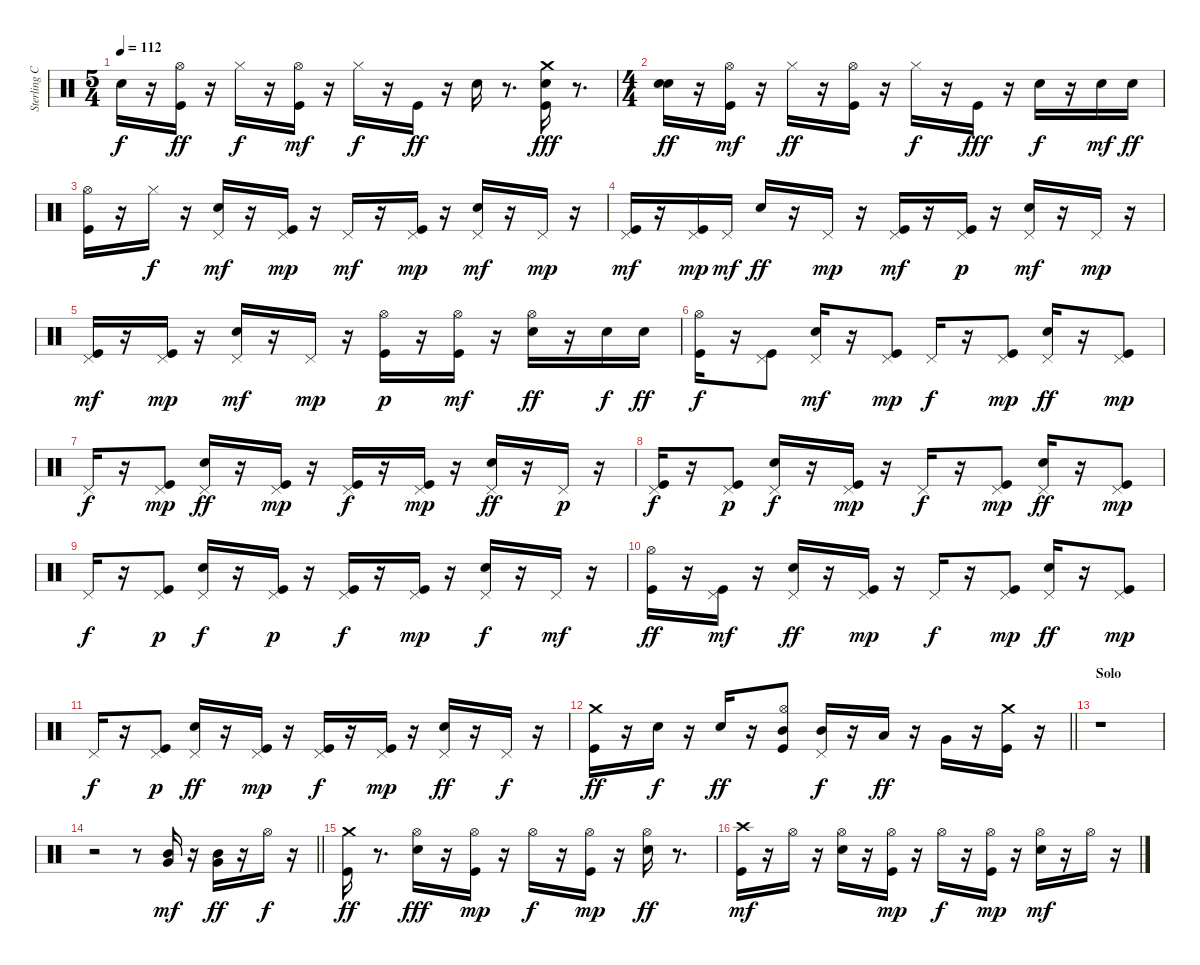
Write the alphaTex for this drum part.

\track ("Sterling Campbell" "Sterling C") {instrument percussion}
\staff {score}
\articulation defaults
\ts (5 4)
\tempo 112
\clef neutral
\ks c "Electric Snare (hit)".16{dy f}
r.16 ("Kick (hit)" "Hi-Hat (open)").16{dy ff} r.16 "Hi-Hat (closed)".16{dy f} r.16 ("Kick (hit)" "Hi-Hat (open)").16{dy mf} r.16 "Hi-Hat (closed)".16{dy f} r.16 "Kick (hit)".16{dy ff} r.16 "Electric Snare (hit)".16 r.8{d} ("Electric Snare (hit)" "Kick (hit)" "Crash medium (hit)").16{dy fff} r.8{d} |
\ts (4 4)
("Electric Snare (hit)" "Electric Snare (hit)").16{dy ff} r.16 ("Kick (hit)" "Hi-Hat (open)").16{dy mf} r.16 "Hi-Hat (closed)".16{dy ff} r.16 ("Kick (hit)" "Hi-Hat (open)").16 r.16 "Hi-Hat (closed)".16{dy f} r.16 "Kick (hit)".16{dy fff} r.16 "Electric Snare (hit)".16{dy f} r.16 "Electric Snare (hit)".16{dy mf} "Electric Snare (hit)".16{dy ff} |
("Kick (hit)" "Hi-Hat (open)").16 r.16 "Hi-Hat (closed)".16{dy f} r.16 ("Electric Snare (hit)" "Pedal Hi-Hat (hit)").16{dy mf} r.16 ("Kick (hit)" "Pedal Hi-Hat (hit)").16{dy mp} r.16 "Pedal Hi-Hat (hit)".16{dy mf} r.16 ("Kick (hit)" "Pedal Hi-Hat (hit)").16{dy mp} r.16 ("Electric Snare (hit)" "Pedal Hi-Hat (hit)").16{dy mf} r.16 "Pedal Hi-Hat (hit)".16{dy mp} r.16 |
("Kick (hit)" "Pedal Hi-Hat (hit)").16{dy mf} r.16 ("Kick (hit)" "Pedal Hi-Hat (hit)").16{dy mp} "Pedal Hi-Hat (hit)".16{dy mf} "Electric Snare (hit)".16{dy ff} r.16 "Pedal Hi-Hat (hit)".16{dy mp} r.16 ("Kick (hit)" "Pedal Hi-Hat (hit)").16{dy mf} r.16 ("Kick (hit)" "Pedal Hi-Hat (hit)").16{dy p} r.16 ("Electric Snare (hit)" "Pedal Hi-Hat (hit)").16{dy mf} r.16 "Pedal Hi-Hat (hit)".16{dy mp} r.16 |
("Kick (hit)" "Pedal Hi-Hat (hit)").16{dy mf} r.16 ("Kick (hit)" "Pedal Hi-Hat (hit)").16{dy mp} r.16 ("Electric Snare (hit)" "Pedal Hi-Hat (hit)").16{dy mf} r.16 "Pedal Hi-Hat (hit)".16{dy mp} r.16 ("Kick (hit)" "Hi-Hat (open)").16{dy p} r.16 ("Kick (hit)" "Hi-Hat (open)").16{dy mf} r.16 ("Electric Snare (hit)" "Hi-Hat (open)").16{dy ff} r.16 "Electric Snare (hit)".16{dy f} "Electric Snare (hit)".16{dy ff} |
("Kick (hit)" "Hi-Hat (open)").16{dy f} r.16 ("Kick (hit)" "Pedal Hi-Hat (hit)").8 ("Electric Snare (hit)" "Pedal Hi-Hat (hit)").16{dy mf} r.16 ("Kick (hit)" "Pedal Hi-Hat (hit)").8{dy mp} "Pedal Hi-Hat (hit)".16{dy f} r.16 ("Kick (hit)" "Pedal Hi-Hat (hit)").8{dy mp} ("Electric Snare (hit)" "Pedal Hi-Hat (hit)").16{dy ff} r.16 ("Kick (hit)" "Pedal Hi-Hat (hit)").8{dy mp} |
"Pedal Hi-Hat (hit)".16{dy f} r.16 ("Kick (hit)" "Pedal Hi-Hat (hit)").8{dy mp} ("Electric Snare (hit)" "Pedal Hi-Hat (hit)").16{dy ff} r.16 ("Kick (hit)" "Pedal Hi-Hat (hit)").16{dy mp} r.16 ("Kick (hit)" "Pedal Hi-Hat (hit)").16{dy f} r.16 ("Kick (hit)" "Pedal Hi-Hat (hit)").16{dy mp} r.16 ("Electric Snare (hit)" "Pedal Hi-Hat (hit)").16{dy ff} r.16 "Pedal Hi-Hat (hit)".16{dy p} r.16 |
("Kick (hit)" "Pedal Hi-Hat (hit)").16{dy f} r.16 ("Kick (hit)" "Pedal Hi-Hat (hit)").8{dy p} ("Electric Snare (hit)" "Pedal Hi-Hat (hit)").16{dy f} r.16 ("Kick (hit)" "Pedal Hi-Hat (hit)").16{dy mp} r.16 "Pedal Hi-Hat (hit)".16{dy f} r.16 ("Kick (hit)" "Pedal Hi-Hat (hit)").8{dy mp} ("Electric Snare (hit)" "Pedal Hi-Hat (hit)").16{dy ff} r.16 ("Kick (hit)" "Pedal Hi-Hat (hit)").8{dy mp} |
"Pedal Hi-Hat (hit)".16{dy f} r.16 ("Kick (hit)" "Pedal Hi-Hat (hit)").8{dy p} ("Electric Snare (hit)" "Pedal Hi-Hat (hit)").16{dy f} r.16 ("Kick (hit)" "Pedal Hi-Hat (hit)").16{dy p} r.16 ("Kick (hit)" "Pedal Hi-Hat (hit)").16{dy f} r.16 ("Kick (hit)" "Pedal Hi-Hat (hit)").16{dy mp} r.16 ("Electric Snare (hit)" "Pedal Hi-Hat (hit)").16{dy f} r.16 "Pedal Hi-Hat (hit)".16{dy mf} r.16 |
("Kick (hit)" "Hi-Hat (open)").16{dy ff} r.16 ("Kick (hit)" "Pedal Hi-Hat (hit)").16{dy mf} r.16 ("Electric Snare (hit)" "Pedal Hi-Hat (hit)").16{dy ff} r.16 ("Kick (hit)" "Pedal Hi-Hat (hit)").16{dy mp} r.16 "Pedal Hi-Hat (hit)".16{dy f} r.16 ("Kick (hit)" "Pedal Hi-Hat (hit)").8{dy mp} ("Electric Snare (hit)" "Pedal Hi-Hat (hit)").16{dy ff} r.16 ("Kick (hit)" "Pedal Hi-Hat (hit)").8{dy mp} |
"Pedal Hi-Hat (hit)".16{dy f} r.16 ("Kick (hit)" "Pedal Hi-Hat (hit)").8{dy p} ("Electric Snare (hit)" "Pedal Hi-Hat (hit)").16{dy ff} r.16 ("Kick (hit)" "Pedal Hi-Hat (hit)").16{dy mp} r.16 ("Kick (hit)" "Pedal Hi-Hat (hit)").16{dy f} r.16 ("Kick (hit)" "Pedal Hi-Hat (hit)").16{dy mp} r.16 ("Electric Snare (hit)" "Pedal Hi-Hat (hit)").16{dy ff} r.16 "Pedal Hi-Hat (hit)".16{dy f} r.16 |
\barLineRight lightlight
("Kick (hit)" "Crash medium (hit)").16{dy ff} r.16 "Electric Snare (hit)".16{dy f} r.16 "Electric Snare (hit)".16{dy ff} r.16 ("Kick (hit)" "Mid Tom (hit)" "Hi-Hat (open)").8 ("Mid Tom (hit)" "Pedal Hi-Hat (hit)").16{dy f} r.16 "Low Tom (hit)".16{dy ff} r.16 "Very Low Tom (hit)".16 r.16 ("Kick (hit)" "Crash medium (hit)").16 r.16 |
\section ("" "Solo")
r.1 |
\barLineRight lightlight
r.2 r.8 ("Mid Tom (hit)" "Very Low Tom (hit)").16{dy mf} r.16 ("Mid Tom (hit)" "Very Low Tom (hit)").16{dy ff} r.16 "Hi-Hat (open)".16{dy f} r.16 |
("Kick (hit)" "Crash medium (hit)").16{dy ff} r.8{d} ("Electric Snare (hit)" "Hi-Hat (open)").16{dy fff} r.16 ("Kick (hit)" "Hi-Hat (open)").16{dy mp} r.16 "Hi-Hat (open)".16{dy f} r.16 ("Kick (hit)" "Hi-Hat (open)").16{dy mp} r.16 ("Electric Snare (hit)" "Hi-Hat (open)").16{dy ff} r.8{d} |
("Kick (hit)" "Crash high (hit)").16{dy mf} r.16 "Hi-Hat (open)".16 r.16 ("Electric Snare (hit)" "Hi-Hat (open)").16 r.16 ("Kick (hit)" "Hi-Hat (open)").16{dy mp} r.16 "Hi-Hat (open)".16{dy f} r.16 ("Kick (hit)" "Hi-Hat (open)").16{dy mp} r.16 ("Electric Snare (hit)" "Hi-Hat (open)").16{dy mf} r.16 "Hi-Hat (open)".16 r.16
